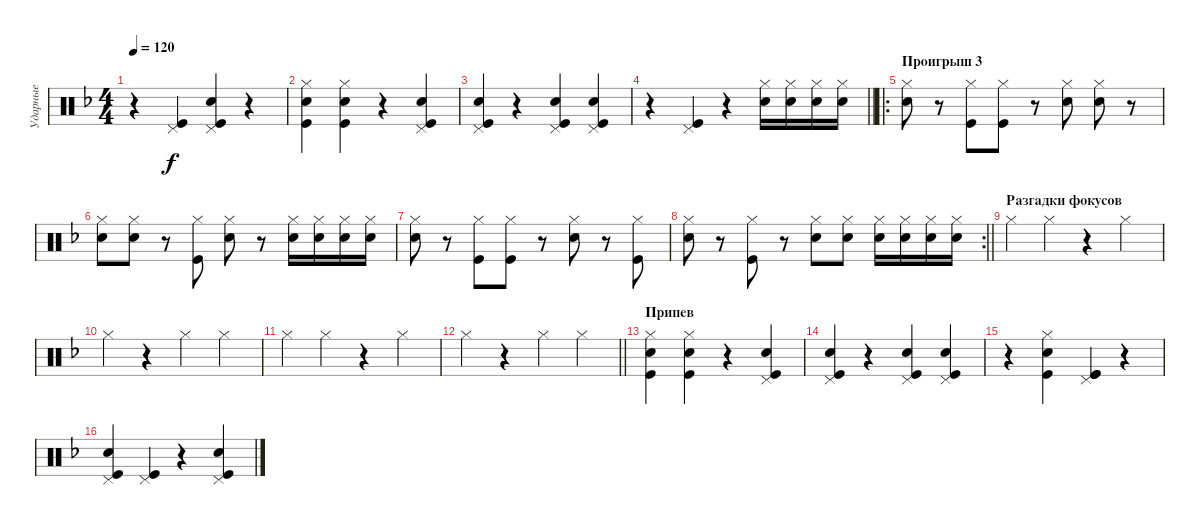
\track ("Ударные" "Ударные") {instrument percussion}
\staff {score}
\articulation defaults
\ts (4 4)
\tempo 120
\clef neutral
\ks f
r.4{dy f} ("Kick (hit)" "Pedal Hi-Hat (hit)").4 ("Kick (hit)" "Snare (hit) 2" "Pedal Hi-Hat (hit)").4 r.4 |
("Kick (hit)" "Snare (hit) 2" "Hi-Hat (closed)").4 ("Kick (hit)" "Snare (hit) 2" "Hi-Hat (closed)").4 r.4 ("Kick (hit)" "Snare (hit) 2" "Pedal Hi-Hat (hit)").4 |
("Kick (hit)" "Snare (hit) 2" "Pedal Hi-Hat (hit)").4 r.4 ("Kick (hit)" "Snare (hit) 2" "Pedal Hi-Hat (hit)").4 ("Kick (hit)" "Snare (hit) 2" "Pedal Hi-Hat (hit)").4 |
\barLineRight lightlight
r.4 ("Kick (hit)" "Pedal Hi-Hat (hit)").4 r.4 ("Snare (hit) 2" "Hi-Hat (closed)").16 ("Snare (hit) 2" "Hi-Hat (closed)").16 ("Snare (hit) 2" "Hi-Hat (closed)").16 ("Snare (hit) 2" "Hi-Hat (closed)").16 |
\ro
\section ("" "Проигрыш 3")
("Hi-Hat (closed)" "Snare (hit) 2").8 r.8 ("Hi-Hat (closed)" "Kick (hit)").8 ("Hi-Hat (closed)" "Kick (hit)").8 r.8 ("Hi-Hat (closed)" "Snare (hit) 2").8 ("Hi-Hat (closed)" "Snare (hit) 2").8 r.8 |
("Hi-Hat (closed)" "Snare (hit) 2").8 ("Hi-Hat (closed)" "Snare (hit) 2").8 r.8 ("Hi-Hat (closed)" "Kick (hit)").8 ("Hi-Hat (closed)" "Snare (hit) 2").8 r.8 ("Snare (hit) 2" "Hi-Hat (closed)").16 ("Snare (hit) 2" "Hi-Hat (closed)").16 ("Snare (hit) 2" "Hi-Hat (closed)").16 ("Snare (hit) 2" "Hi-Hat (closed)").16 |
("Hi-Hat (closed)" "Snare (hit) 2").8 r.8 ("Hi-Hat (closed)" "Kick (hit)").8 ("Hi-Hat (closed)" "Kick (hit)").8 r.8 ("Hi-Hat (closed)" "Snare (hit) 2").8 r.8 ("Hi-Hat (closed)" "Kick (hit)").8 |
\rc 2
\barLineRight lightlight
("Hi-Hat (closed)" "Snare (hit) 2").8 r.8 ("Hi-Hat (closed)" "Kick (hit)").8 r.8 ("Hi-Hat (closed)" "Snare (hit) 2").8 ("Hi-Hat (closed)" "Snare (hit) 2").8 ("Hi-Hat (closed)" "Snare (hit) 2").16 ("Hi-Hat (closed)" "Snare (hit) 2").16 ("Hi-Hat (closed)" "Snare (hit) 2").16 ("Hi-Hat (closed)" "Snare (hit) 2").16 |
\section ("" "Разгадки фокусов")
"Hi-Hat (closed)".4 "Hi-Hat (closed)".4 r.4 "Hi-Hat (closed)".4 |
"Hi-Hat (closed)".4 r.4 "Hi-Hat (closed)".4 "Hi-Hat (closed)".4 |
"Hi-Hat (closed)".4 "Hi-Hat (closed)".4 r.4 "Hi-Hat (closed)".4 |
\barLineRight lightlight "Hi-Hat (closed)".4
r.4 "Hi-Hat (closed)".4 "Hi-Hat (closed)".4 |
\section ("" "Припев")
("Kick (hit)" "Snare (hit) 2" "Hi-Hat (closed)").4 ("Kick (hit)" "Snare (hit) 2" "Hi-Hat (closed)").4 r.4 ("Kick (hit)" "Snare (hit) 2" "Pedal Hi-Hat (hit)").4 |
("Kick (hit)" "Snare (hit) 2" "Pedal Hi-Hat (hit)").4 r.4 ("Kick (hit)" "Snare (hit) 2" "Pedal Hi-Hat (hit)").4 ("Kick (hit)" "Snare (hit) 2" "Pedal Hi-Hat (hit)").4 |
r.4 ("Kick (hit)" "Snare (hit) 2" "Hi-Hat (closed)").4 ("Kick (hit)" "Kick (hit)" "Pedal Hi-Hat (hit)").4 r.4 |
("Kick (hit)" "Snare (hit) 2" "Pedal Hi-Hat (hit)").4 ("Kick (hit)" "Pedal Hi-Hat (hit)").4 r.4 ("Kick (hit)" "Snare (hit) 2" "Pedal Hi-Hat (hit)").4
